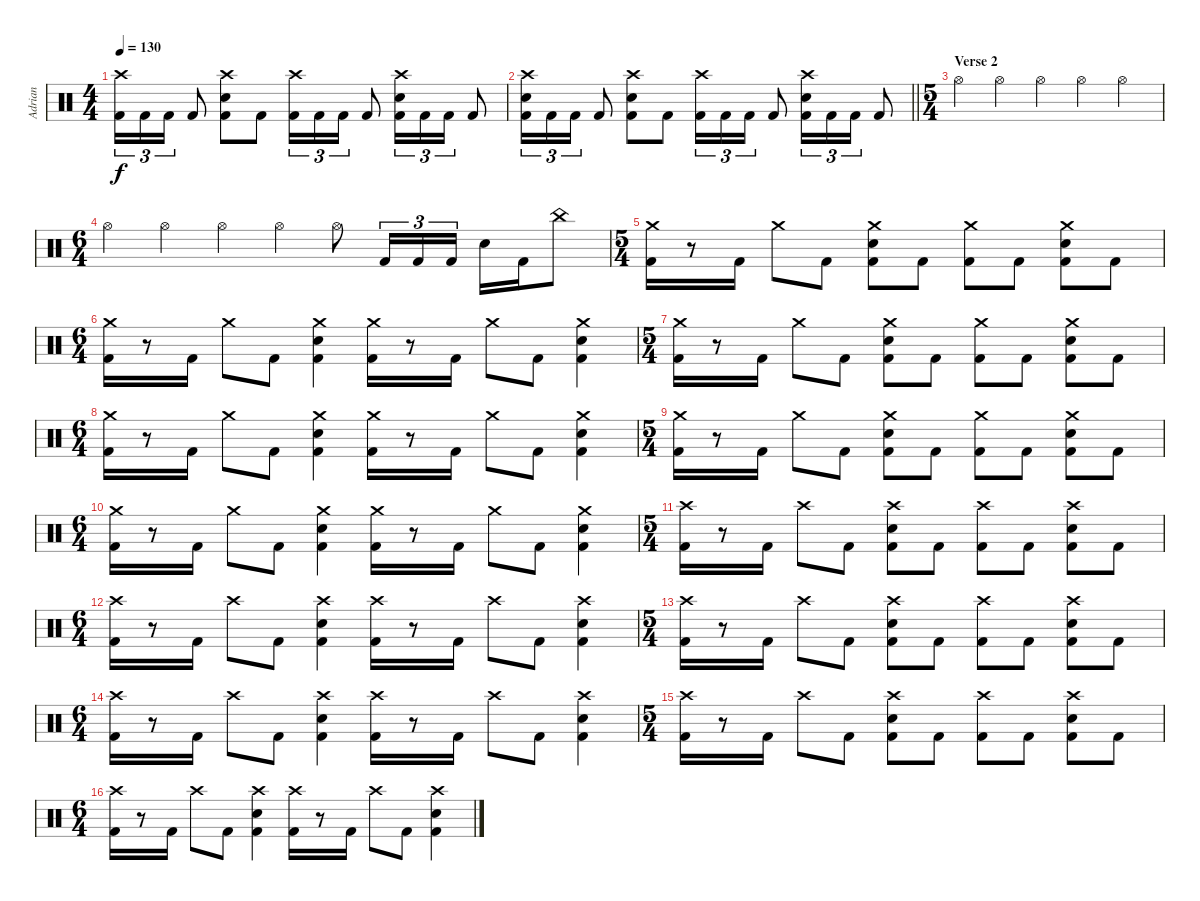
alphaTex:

\track ("Adrian" "Adrian") {instrument percussion}
\staff {score}
\articulation defaults
\ts (4 4)
\tempo 130
\clef neutral
\ks c
("Crash high (hit)" "Kick (hit) 2").16{tu (3 2) dy f} "Kick (hit) 2".16{tu (3 2)} "Kick (hit) 2".16{tu (3 2)} "Kick (hit) 2".8 ("Crash high (hit)" "Snare (hit) 2" "Kick (hit) 2").8 "Kick (hit) 2".8 ("Crash high (hit)" "Kick (hit) 2").16{tu (3 2)} "Kick (hit) 2".16{tu (3 2)} "Kick (hit) 2".16{tu (3 2)} "Kick (hit) 2".8 ("Crash high (hit)" "Snare (hit) 2" "Kick (hit) 2").16{tu (3 2)} "Kick (hit) 2".16{tu (3 2)} "Kick (hit) 2".16{tu (3 2)} "Kick (hit) 2".8 |
\barLineRight lightlight
("Crash high (hit)" "Snare (hit) 2" "Kick (hit) 2").16{tu (3 2)} "Kick (hit) 2".16{tu (3 2)} "Kick (hit) 2".16{tu (3 2)} "Kick (hit) 2".8 ("Crash high (hit)" "Snare (hit) 2" "Kick (hit) 2").8 "Kick (hit) 2".8 ("Crash high (hit)" "Kick (hit) 2").16{tu (3 2)} "Kick (hit) 2".16{tu (3 2)} "Kick (hit) 2".16{tu (3 2)} "Kick (hit) 2".8 ("Crash high (hit)" "Snare (hit) 2" "Kick (hit) 2").16{tu (3 2)} "Kick (hit) 2".16{tu (3 2)} "Kick (hit) 2".16{tu (3 2)} "Kick (hit) 2".8 |
\ts (5 4)
\section ("" "Verse 2")
"Hi-Hat (open)".4 "Hi-Hat (open)".4 "Hi-Hat (open)".4 "Hi-Hat (open)".4 "Hi-Hat (open)".4 |
\ts (6 4)
"Hi-Hat (open)".4 "Hi-Hat (open)".4 "Hi-Hat (open)".4 "Hi-Hat (open)".4 "Hi-Hat (open)".8 "Kick (hit) 2".16{tu (3 2)} "Kick (hit) 2".16{tu (3 2)} "Kick (hit) 2".16{tu (3 2) beam splitsecondary} "Snare (hit) 2".16 "Kick (hit) 2".16 "China (hit)".8 |
\ts (5 4)
("Crash medium (hit)" "Kick (hit) 2").16 r.8 "Kick (hit) 2".16 "Crash medium (hit)".8 "Kick (hit) 2".8 ("Crash medium (hit)" "Snare (hit) 2" "Kick (hit) 2").8 "Kick (hit) 2".8 ("Crash medium (hit)" "Kick (hit) 2").8 "Kick (hit) 2".8 ("Crash medium (hit)" "Snare (hit) 2" "Kick (hit) 2").8 "Kick (hit) 2".8 |
\ts (6 4)
("Crash medium (hit)" "Kick (hit) 2").16 r.8 "Kick (hit) 2".16 "Crash medium (hit)".8 "Kick (hit) 2".8 ("Crash medium (hit)" "Snare (hit) 2" "Kick (hit) 2").4 ("Crash medium (hit)" "Kick (hit) 2").16 r.8 "Kick (hit) 2".16 "Crash medium (hit)".8 "Kick (hit) 2".8 ("Crash medium (hit)" "Snare (hit) 2" "Kick (hit) 2").4 |
\ts (5 4)
("Crash medium (hit)" "Kick (hit) 2").16 r.8 "Kick (hit) 2".16 "Crash medium (hit)".8 "Kick (hit) 2".8 ("Crash medium (hit)" "Snare (hit) 2" "Kick (hit) 2").8 "Kick (hit) 2".8 ("Crash medium (hit)" "Kick (hit) 2").8 "Kick (hit) 2".8 ("Crash medium (hit)" "Snare (hit) 2" "Kick (hit) 2").8 "Kick (hit) 2".8 |
\ts (6 4)
("Crash medium (hit)" "Kick (hit) 2").16 r.8 "Kick (hit) 2".16 "Crash medium (hit)".8 "Kick (hit) 2".8 ("Crash medium (hit)" "Snare (hit) 2" "Kick (hit) 2").4 ("Crash medium (hit)" "Kick (hit) 2").16 r.8 "Kick (hit) 2".16 "Crash medium (hit)".8 "Kick (hit) 2".8 ("Crash medium (hit)" "Snare (hit) 2" "Kick (hit) 2").4 |
\ts (5 4)
("Crash medium (hit)" "Kick (hit) 2").16 r.8 "Kick (hit) 2".16 "Crash medium (hit)".8 "Kick (hit) 2".8 ("Crash medium (hit)" "Snare (hit) 2" "Kick (hit) 2").8 "Kick (hit) 2".8 ("Crash medium (hit)" "Kick (hit) 2").8 "Kick (hit) 2".8 ("Crash medium (hit)" "Snare (hit) 2" "Kick (hit) 2").8 "Kick (hit) 2".8 |
\ts (6 4)
("Crash medium (hit)" "Kick (hit) 2").16 r.8 "Kick (hit) 2".16 "Crash medium (hit)".8 "Kick (hit) 2".8 ("Crash medium (hit)" "Snare (hit) 2" "Kick (hit) 2").4 ("Crash medium (hit)" "Kick (hit) 2").16 r.8 "Kick (hit) 2".16 "Crash medium (hit)".8 "Kick (hit) 2".8 ("Crash medium (hit)" "Snare (hit) 2" "Kick (hit) 2").4 |
\ts (5 4)
("Crash high (hit)" "Kick (hit) 2").16 r.8 "Kick (hit) 2".16 "Crash high (hit)".8 "Kick (hit) 2".8 ("Crash high (hit)" "Snare (hit) 2" "Kick (hit) 2").8 "Kick (hit) 2".8 ("Crash high (hit)" "Kick (hit) 2").8 "Kick (hit) 2".8 ("Crash high (hit)" "Snare (hit) 2" "Kick (hit) 2").8 "Kick (hit) 2".8 |
\ts (6 4)
("Crash high (hit)" "Kick (hit) 2").16 r.8 "Kick (hit) 2".16 "Crash high (hit)".8 "Kick (hit) 2".8 ("Crash high (hit)" "Snare (hit) 2" "Kick (hit) 2").4 ("Crash high (hit)" "Kick (hit) 2").16 r.8 "Kick (hit) 2".16 "Crash high (hit)".8 "Kick (hit) 2".8 ("Crash high (hit)" "Snare (hit) 2" "Kick (hit) 2").4 |
\ts (5 4)
("Crash high (hit)" "Kick (hit) 2").16 r.8 "Kick (hit) 2".16 "Crash high (hit)".8 "Kick (hit) 2".8 ("Crash high (hit)" "Snare (hit) 2" "Kick (hit) 2").8 "Kick (hit) 2".8 ("Crash high (hit)" "Kick (hit) 2").8 "Kick (hit) 2".8 ("Crash high (hit)" "Snare (hit) 2" "Kick (hit) 2").8 "Kick (hit) 2".8 |
\ts (6 4)
("Crash high (hit)" "Kick (hit) 2").16 r.8 "Kick (hit) 2".16 "Crash high (hit)".8 "Kick (hit) 2".8 ("Crash high (hit)" "Snare (hit) 2" "Kick (hit) 2").4 ("Crash high (hit)" "Kick (hit) 2").16 r.8 "Kick (hit) 2".16 "Crash high (hit)".8 "Kick (hit) 2".8 ("Crash high (hit)" "Snare (hit) 2" "Kick (hit) 2").4 |
\ts (5 4)
("Crash high (hit)" "Kick (hit) 2").16 r.8 "Kick (hit) 2".16 "Crash high (hit)".8 "Kick (hit) 2".8 ("Crash high (hit)" "Snare (hit) 2" "Kick (hit) 2").8 "Kick (hit) 2".8 ("Crash high (hit)" "Kick (hit) 2").8 "Kick (hit) 2".8 ("Crash high (hit)" "Snare (hit) 2" "Kick (hit) 2").8 "Kick (hit) 2".8 |
\ts (6 4)
("Crash high (hit)" "Kick (hit) 2").16 r.8 "Kick (hit) 2".16 "Crash high (hit)".8 "Kick (hit) 2".8 ("Crash high (hit)" "Snare (hit) 2" "Kick (hit) 2").4 ("Crash high (hit)" "Kick (hit) 2").16 r.8 "Kick (hit) 2".16 "Crash high (hit)".8 "Kick (hit) 2".8 ("Crash high (hit)" "Snare (hit) 2" "Kick (hit) 2").4
